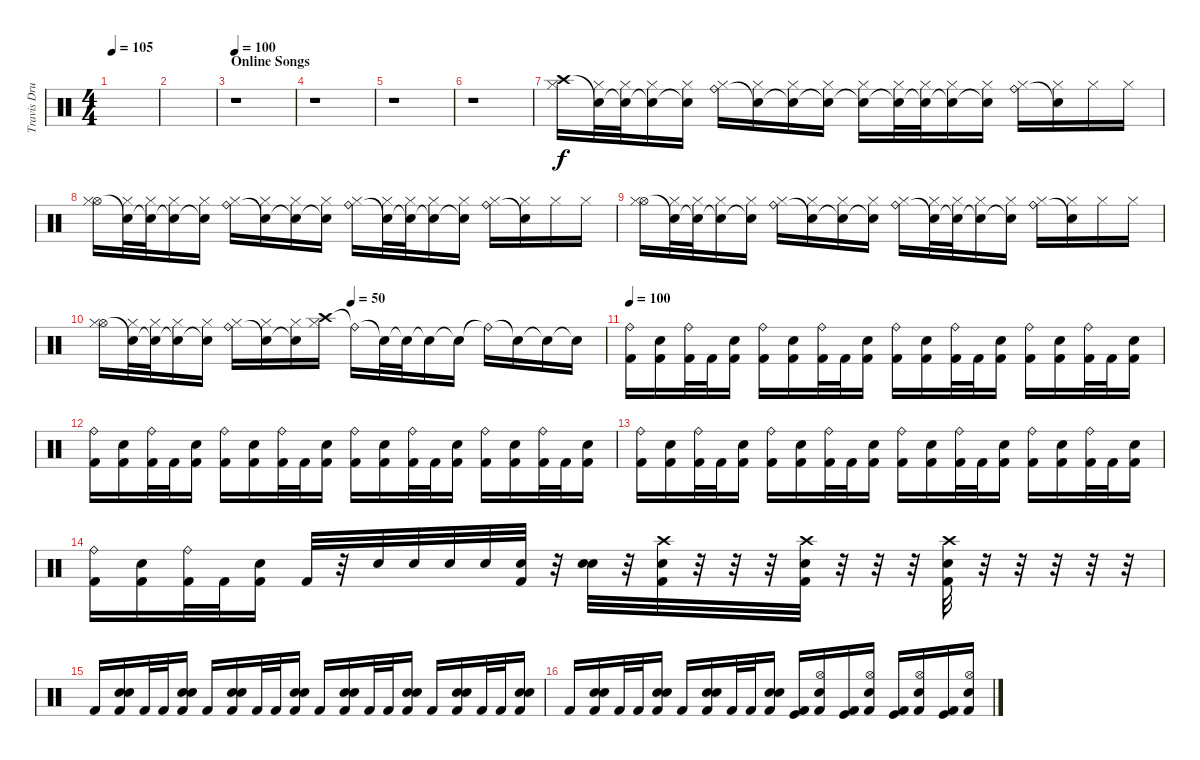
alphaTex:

\track ("Travis Drums" "Travis Dru") {instrument percussion}
\staff {score}
\articulation defaults
\ts (4 4)
\tempo 105
\clef neutral
\ks c
|
|
\section ("" "Online Songs")
\tempo 100
r.1 |
r.1 |
r.1 |
r.1 |
("Crash high (hit)" "Hi-Hat (closed)").16 ("Snare (hit)"{t} "Hi-Hat (closed)").32 ("Snare (hit)"{t} "Hi-Hat (closed)").32 ("Snare (hit)"{t} "Hi-Hat (closed)").16 ("Snare (hit)"{t} "Hi-Hat (closed)").16 ("Ride (bell)" "Hi-Hat (closed)").16 ("Snare (hit)"{t} "Hi-Hat (closed)").16 ("Snare (hit)"{t} "Hi-Hat (closed)").16 ("Snare (hit)"{t} "Hi-Hat (closed)").16 ("Snare (hit)"{t} "Hi-Hat (closed)").16 ("Snare (hit)"{t} "Hi-Hat (closed)").32 ("Snare (hit)"{t} "Hi-Hat (closed)").32 ("Snare (hit)"{t} "Hi-Hat (closed)").16 ("Snare (hit)"{t} "Hi-Hat (closed)").16 ("Ride (bell)" "Hi-Hat (closed)").16 ("Snare (hit)"{t} "Hi-Hat (closed)").16 "Hi-Hat (closed)".16 "Hi-Hat (closed)".16 |
("Hi-Hat (open)" "Hi-Hat (closed)").16 ("Snare (hit)"{t} "Hi-Hat (closed)").32 ("Snare (hit)"{t} "Hi-Hat (closed)").32 ("Snare (hit)"{t} "Hi-Hat (closed)").16 ("Snare (hit)"{t} "Hi-Hat (closed)").16 ("Ride (bell)" "Hi-Hat (closed)").16 ("Snare (hit)"{t} "Hi-Hat (closed)").16 ("Snare (hit)"{t} "Hi-Hat (closed)").16 ("Snare (hit)"{t} "Hi-Hat (closed)").16 ("Ride (bell)" "Hi-Hat (closed)").16 ("Snare (hit)"{t} "Hi-Hat (closed)").32 ("Snare (hit)"{t} "Hi-Hat (closed)").32 ("Snare (hit)"{t} "Hi-Hat (closed)").16 ("Snare (hit)"{t} "Hi-Hat (closed)").16 ("Ride (bell)" "Hi-Hat (closed)").16 ("Snare (hit)"{t} "Hi-Hat (closed)").16 "Hi-Hat (closed)".16 "Hi-Hat (closed)".16 |
("Hi-Hat (open)" "Hi-Hat (closed)").16 ("Snare (hit)"{t} "Hi-Hat (closed)").32 ("Snare (hit)"{t} "Hi-Hat (closed)").32 ("Snare (hit)"{t} "Hi-Hat (closed)").16 ("Snare (hit)"{t} "Hi-Hat (closed)").16 ("Ride (bell)" "Hi-Hat (closed)").16 ("Snare (hit)"{t} "Hi-Hat (closed)").16 ("Snare (hit)"{t} "Hi-Hat (closed)").16 ("Snare (hit)"{t} "Hi-Hat (closed)").16 ("Ride (bell)" "Hi-Hat (closed)").16 ("Snare (hit)"{t} "Hi-Hat (closed)").32 ("Snare (hit)"{t} "Hi-Hat (closed)").32 ("Snare (hit)"{t} "Hi-Hat (closed)").16 ("Snare (hit)"{t} "Hi-Hat (closed)").16 ("Ride (bell)" "Hi-Hat (closed)").16 ("Snare (hit)"{t} "Hi-Hat (closed)").16 "Hi-Hat (closed)".16 "Hi-Hat (closed)".16 |
\tempo (50 0.5)
("Hi-Hat (open)" "Hi-Hat (closed)").16 ("Snare (hit)"{t} "Hi-Hat (closed)").32 ("Snare (hit)"{t} "Hi-Hat (closed)").32 ("Snare (hit)"{t} "Hi-Hat (closed)").16 ("Snare (hit)"{t} "Hi-Hat (closed)").16 ("Ride (bell)" "Hi-Hat (closed)").16 ("Snare (hit)"{t} "Hi-Hat (closed)").16 ("Snare (hit)"{t} "Hi-Hat (closed)").16 ("Crash high (hit)" "Hi-Hat (closed)").16 "Ride (bell)"{t}.16 "Snare (hit)"{t}.32 "Snare (hit)"{t}.32 "Snare (hit)"{t}.16 "Snare (hit)"{t}.16 "Ride (bell)"{t}.16 "Snare (hit)"{t}.16 "Snare (hit)"{t}.16 "Snare (hit)"{t}.16 |
\tempo 100
("Ride (bell)" "Kick (hit) 2").16 ("Electric Snare (hit)" "Kick (hit) 2").16 ("Ride (bell)" "Kick (hit) 2").32 "Kick (hit) 2".32 ("Electric Snare (hit)" "Kick (hit) 2").16 ("Ride (bell)" "Kick (hit) 2").16 ("Electric Snare (hit)" "Kick (hit) 2").16 ("Ride (bell)" "Kick (hit) 2").32 "Kick (hit) 2".32 ("Electric Snare (hit)" "Kick (hit) 2").16 ("Ride (bell)" "Kick (hit) 2").16 ("Electric Snare (hit)" "Kick (hit) 2").16 ("Ride (bell)" "Kick (hit) 2").32 "Kick (hit) 2".32 ("Electric Snare (hit)" "Kick (hit) 2").16 ("Ride (bell)" "Kick (hit) 2").16 ("Electric Snare (hit)" "Kick (hit) 2").16 ("Ride (bell)" "Kick (hit) 2").32 "Kick (hit) 2".32 ("Electric Snare (hit)" "Kick (hit) 2").16 |
("Ride (bell)" "Kick (hit) 2").16 ("Electric Snare (hit)" "Kick (hit) 2").16 ("Ride (bell)" "Kick (hit) 2").32 "Kick (hit) 2".32 ("Electric Snare (hit)" "Kick (hit) 2").16 ("Ride (bell)" "Kick (hit) 2").16 ("Electric Snare (hit)" "Kick (hit) 2").16 ("Ride (bell)" "Kick (hit) 2").32 "Kick (hit) 2".32 ("Electric Snare (hit)" "Kick (hit) 2").16 ("Ride (bell)" "Kick (hit) 2").16 ("Electric Snare (hit)" "Kick (hit) 2").16 ("Ride (bell)" "Kick (hit) 2").32 "Kick (hit) 2".32 ("Electric Snare (hit)" "Kick (hit) 2").16 ("Ride (bell)" "Kick (hit) 2").16 ("Electric Snare (hit)" "Kick (hit) 2").16 ("Ride (bell)" "Kick (hit) 2").32 "Kick (hit) 2".32 ("Electric Snare (hit)" "Kick (hit) 2").16 |
("Ride (bell)" "Kick (hit) 2").16 ("Electric Snare (hit)" "Kick (hit) 2").16 ("Ride (bell)" "Kick (hit) 2").32 "Kick (hit) 2".32 ("Electric Snare (hit)" "Kick (hit) 2").16 ("Ride (bell)" "Kick (hit) 2").16 ("Electric Snare (hit)" "Kick (hit) 2").16 ("Ride (bell)" "Kick (hit) 2").32 "Kick (hit) 2".32 ("Electric Snare (hit)" "Kick (hit) 2").16 ("Ride (bell)" "Kick (hit) 2").16 ("Electric Snare (hit)" "Kick (hit) 2").16 ("Ride (bell)" "Kick (hit) 2").32 "Kick (hit) 2".32 ("Electric Snare (hit)" "Kick (hit) 2").16 ("Ride (bell)" "Kick (hit) 2").16 ("Electric Snare (hit)" "Kick (hit) 2").16 ("Ride (bell)" "Kick (hit) 2").32 "Kick (hit) 2".32 ("Electric Snare (hit)" "Kick (hit) 2").16 |
("Ride (bell)" "Kick (hit) 2").16 ("Electric Snare (hit)" "Kick (hit) 2").16 ("Ride (bell)" "Kick (hit) 2").32 "Kick (hit) 2".32 ("Electric Snare (hit)" "Kick (hit) 2").16 "Kick (hit) 2".32 r.32 "Electric Snare (hit)".32 "Electric Snare (hit)".32 "Electric Snare (hit)".32 "Electric Snare (hit)".32 ("Electric Snare (hit)" "Kick (hit) 2").32 r.32 ("Electric Snare (hit)" "Electric Snare (hit)").32 r.32 ("Crash high (hit)" "Electric Snare (hit)" "Kick (hit) 2").32 r.32 r.32 r.32 ("Crash high (hit)" "Electric Snare (hit)" "Kick (hit) 2").32 r.32 r.32 r.32 ("Crash high (hit)" "Electric Snare (hit)" "Kick (hit) 2").32 r.32 r.32 r.32 r.32 r.32 |
"Kick (hit) 2".16 ("Electric Snare (hit)" "Snare (hit) 2" "Kick (hit) 2").16 "Kick (hit) 2".32 "Kick (hit) 2".32 ("Electric Snare (hit)" "Snare (hit) 2" "Kick (hit) 2").16 "Kick (hit) 2".16 ("Electric Snare (hit)" "Snare (hit) 2" "Kick (hit) 2").16 "Kick (hit) 2".32 "Kick (hit) 2".32 ("Electric Snare (hit)" "Snare (hit) 2" "Kick (hit) 2").16 "Kick (hit) 2".16 ("Electric Snare (hit)" "Snare (hit) 2" "Kick (hit) 2").16 "Kick (hit) 2".32 "Kick (hit) 2".32 ("Electric Snare (hit)" "Snare (hit) 2" "Kick (hit) 2").16 "Kick (hit) 2".16 ("Electric Snare (hit)" "Snare (hit) 2" "Kick (hit) 2").16 "Kick (hit) 2".32 "Kick (hit) 2".32 ("Electric Snare (hit)" "Snare (hit) 2" "Kick (hit) 2").16 |
"Kick (hit) 2".16 ("Electric Snare (hit)" "Snare (hit) 2" "Kick (hit) 2").16 "Kick (hit) 2".32 "Kick (hit) 2".32 ("Electric Snare (hit)" "Snare (hit) 2" "Kick (hit) 2").16 "Kick (hit) 2".16 ("Electric Snare (hit)" "Snare (hit) 2" "Kick (hit) 2").16 "Kick (hit) 2".32 "Kick (hit) 2".32 ("Electric Snare (hit)" "Snare (hit) 2" "Kick (hit) 2").16 ("Kick (hit)" "Kick (hit) 2").16 ("Hi-Hat (open)" "Snare (hit) 2" "Kick (hit) 2").16 ("Kick (hit)" "Kick (hit) 2").16 ("Hi-Hat (open)" "Snare (hit) 2" "Kick (hit) 2").16 ("Kick (hit)" "Kick (hit) 2").16 ("Hi-Hat (open)" "Snare (hit) 2" "Kick (hit) 2").16 ("Kick (hit)" "Kick (hit) 2").16 ("Hi-Hat (open)" "Snare (hit) 2" "Kick (hit) 2").16
